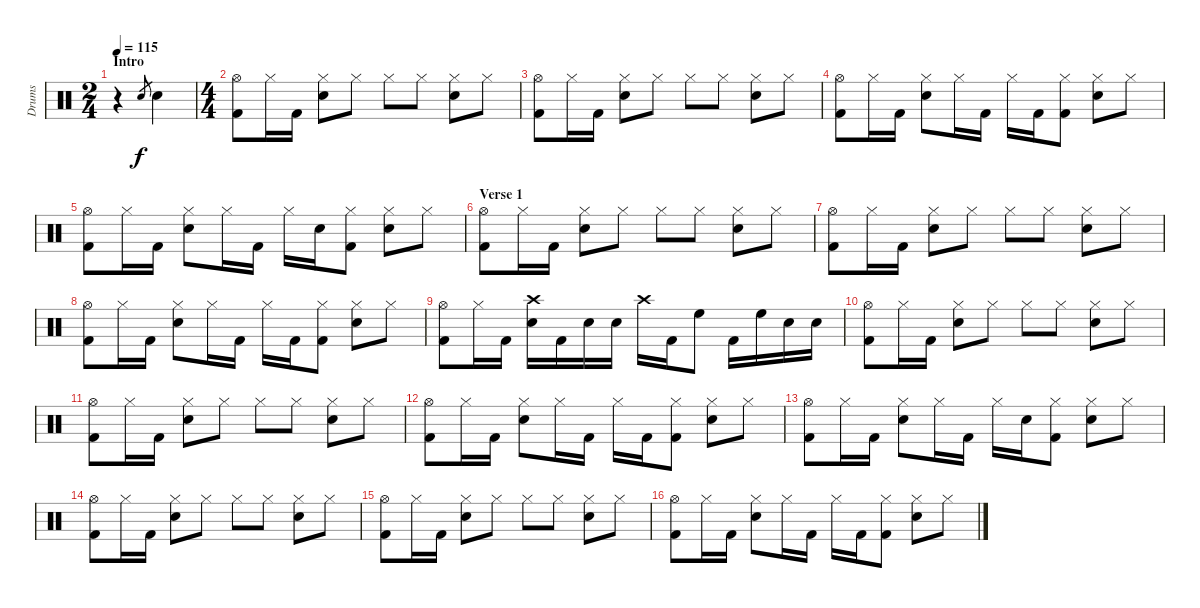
\track ("Drums" "Drums") {instrument percussion}
\staff {score}
\articulation defaults
\ts (2 4)
\section ("" "Intro")
\tempo 115
\clef neutral
\ks c
r.4{dy f} "Electric Snare (hit)".8{gr} "Electric Snare (hit)".4 |
\ts (4 4)
("Hi-Hat (open)" "Kick (hit) 2").8 "Hi-Hat (closed)".16 "Kick (hit) 2".16 ("Hi-Hat (closed)" "Electric Snare (hit)").8 "Hi-Hat (closed)".8 "Hi-Hat (closed)".8 "Hi-Hat (closed)".8 ("Hi-Hat (closed)" "Electric Snare (hit)").8 "Hi-Hat (closed)".8 |
("Hi-Hat (open)" "Kick (hit) 2").8 "Hi-Hat (closed)".16 "Kick (hit) 2".16 ("Hi-Hat (closed)" "Electric Snare (hit)").8 "Hi-Hat (closed)".8 "Hi-Hat (closed)".8 "Hi-Hat (closed)".8 ("Hi-Hat (closed)" "Electric Snare (hit)").8 "Hi-Hat (closed)".8 |
("Hi-Hat (open)" "Kick (hit) 2").8 "Hi-Hat (closed)".16 "Kick (hit) 2".16 ("Hi-Hat (closed)" "Electric Snare (hit)").8 "Hi-Hat (closed)".16 "Kick (hit) 2".16 "Hi-Hat (closed)".16 "Kick (hit) 2".16 ("Hi-Hat (closed)" "Kick (hit) 2").8 ("Hi-Hat (closed)" "Electric Snare (hit)").8 "Hi-Hat (closed)".8 |
("Hi-Hat (open)" "Kick (hit) 2").8 "Hi-Hat (closed)".16 "Kick (hit) 2".16 ("Hi-Hat (closed)" "Electric Snare (hit)").8 "Hi-Hat (closed)".16 "Kick (hit) 2".16 "Hi-Hat (closed)".16 "Electric Snare (hit)".16 ("Hi-Hat (closed)" "Kick (hit) 2").8 ("Hi-Hat (closed)" "Electric Snare (hit)").8 "Hi-Hat (closed)".8 |
\section ("" "Verse 1")
("Hi-Hat (open)" "Kick (hit) 2").8 "Hi-Hat (closed)".16 "Kick (hit) 2".16 ("Hi-Hat (closed)" "Electric Snare (hit)").8 "Hi-Hat (closed)".8 "Hi-Hat (closed)".8 "Hi-Hat (closed)".8 ("Hi-Hat (closed)" "Electric Snare (hit)").8 "Hi-Hat (closed)".8 |
("Hi-Hat (open)" "Kick (hit) 2").8 "Hi-Hat (closed)".16 "Kick (hit) 2".16 ("Hi-Hat (closed)" "Electric Snare (hit)").8 "Hi-Hat (closed)".8 "Hi-Hat (closed)".8 "Hi-Hat (closed)".8 ("Hi-Hat (closed)" "Electric Snare (hit)").8 "Hi-Hat (closed)".8 |
("Hi-Hat (open)" "Kick (hit) 2").8 "Hi-Hat (closed)".16 "Kick (hit) 2".16 ("Hi-Hat (closed)" "Electric Snare (hit)").8 "Hi-Hat (closed)".16 "Kick (hit) 2".16 "Hi-Hat (closed)".16 "Kick (hit) 2".16 ("Hi-Hat (closed)" "Kick (hit) 2").8 ("Hi-Hat (closed)" "Electric Snare (hit)").8 "Hi-Hat (closed)".8 |
("Hi-Hat (open)" "Kick (hit) 2").8 "Hi-Hat (closed)".16 "Kick (hit) 2".16 ("Crash high (hit)" "Electric Snare (hit)").16 "Kick (hit) 2".16 "Electric Snare (hit)".16 "Electric Snare (hit)".16 "Crash high (hit)".16 "Kick (hit) 2".16 "High Floor Tom (hit)".8 "Kick (hit) 2".16 "High Floor Tom (hit)".16 "Electric Snare (hit)".16 "Electric Snare (hit)".16 |
("Hi-Hat (open)" "Kick (hit) 2").8 "Hi-Hat (closed)".16 "Kick (hit) 2".16 ("Hi-Hat (closed)" "Electric Snare (hit)").8 "Hi-Hat (closed)".8 "Hi-Hat (closed)".8 "Hi-Hat (closed)".8 ("Hi-Hat (closed)" "Electric Snare (hit)").8 "Hi-Hat (closed)".8 |
("Hi-Hat (open)" "Kick (hit) 2").8 "Hi-Hat (closed)".16 "Kick (hit) 2".16 ("Hi-Hat (closed)" "Electric Snare (hit)").8 "Hi-Hat (closed)".8 "Hi-Hat (closed)".8 "Hi-Hat (closed)".8 ("Hi-Hat (closed)" "Electric Snare (hit)").8 "Hi-Hat (closed)".8 |
("Hi-Hat (open)" "Kick (hit) 2").8 "Hi-Hat (closed)".16 "Kick (hit) 2".16 ("Hi-Hat (closed)" "Electric Snare (hit)").8 "Hi-Hat (closed)".16 "Kick (hit) 2".16 "Hi-Hat (closed)".16 "Kick (hit) 2".16 ("Hi-Hat (closed)" "Kick (hit) 2").8 ("Hi-Hat (closed)" "Electric Snare (hit)").8 "Hi-Hat (closed)".8 |
("Hi-Hat (open)" "Kick (hit) 2").8 "Hi-Hat (closed)".16 "Kick (hit) 2".16 ("Hi-Hat (closed)" "Electric Snare (hit)").8 "Hi-Hat (closed)".16 "Kick (hit) 2".16 "Hi-Hat (closed)".16 "Electric Snare (hit)".16 ("Hi-Hat (closed)" "Kick (hit) 2").8 ("Hi-Hat (closed)" "Electric Snare (hit)").8 "Hi-Hat (closed)".8 |
("Hi-Hat (open)" "Kick (hit) 2").8 "Hi-Hat (closed)".16 "Kick (hit) 2".16 ("Hi-Hat (closed)" "Electric Snare (hit)").8 "Hi-Hat (closed)".8 "Hi-Hat (closed)".8 "Hi-Hat (closed)".8 ("Hi-Hat (closed)" "Electric Snare (hit)").8 "Hi-Hat (closed)".8 |
("Hi-Hat (open)" "Kick (hit) 2").8 "Hi-Hat (closed)".16 "Kick (hit) 2".16 ("Hi-Hat (closed)" "Electric Snare (hit)").8 "Hi-Hat (closed)".8 "Hi-Hat (closed)".8 "Hi-Hat (closed)".8 ("Hi-Hat (closed)" "Electric Snare (hit)").8 "Hi-Hat (closed)".8 |
("Hi-Hat (open)" "Kick (hit) 2").8 "Hi-Hat (closed)".16 "Kick (hit) 2".16 ("Hi-Hat (closed)" "Electric Snare (hit)").8 "Hi-Hat (closed)".16 "Kick (hit) 2".16 "Hi-Hat (closed)".16 "Kick (hit) 2".16 ("Hi-Hat (closed)" "Kick (hit) 2").8 ("Hi-Hat (closed)" "Electric Snare (hit)").8 "Hi-Hat (closed)".8
